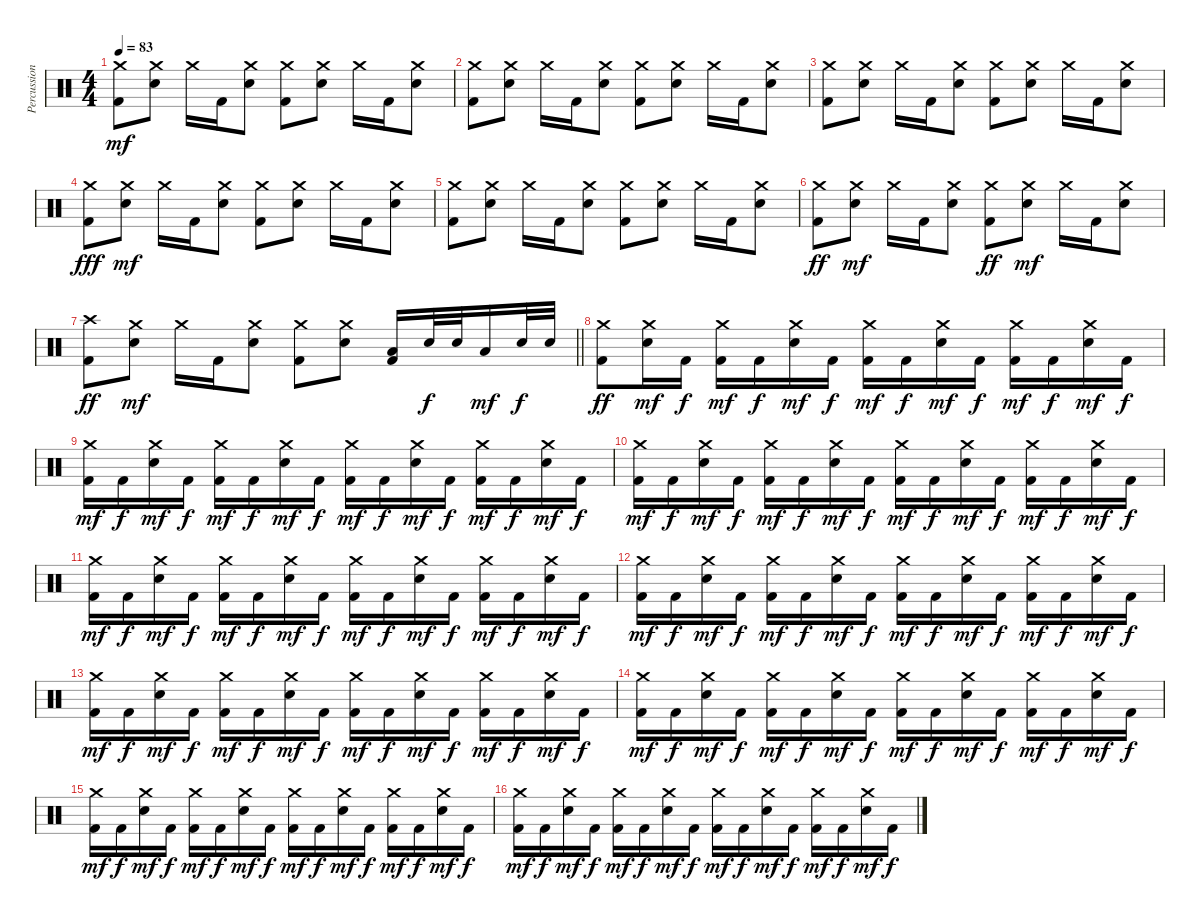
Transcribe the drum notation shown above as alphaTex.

\track ("Percussions" "Percussion") {instrument percussion}
\staff {score}
\articulation defaults
\ts (4 4)
\tempo 83
\clef neutral
\ks c
("Kick (hit) 2" "Crash medium (hit)").8{dy mf} ("Electric Snare (hit)" "Crash medium (hit)").8 "Crash medium (hit)".16 "Kick (hit) 2".16 ("Electric Snare (hit)" "Crash medium (hit)").8 ("Kick (hit) 2" "Crash medium (hit)").8 ("Electric Snare (hit)" "Crash medium (hit)").8 "Crash medium (hit)".16 "Kick (hit) 2".16 ("Electric Snare (hit)" "Crash medium (hit)").8 |
("Kick (hit) 2" "Crash medium (hit)").8 ("Electric Snare (hit)" "Crash medium (hit)").8 "Crash medium (hit)".16 "Kick (hit) 2".16 ("Electric Snare (hit)" "Crash medium (hit)").8 ("Kick (hit) 2" "Crash medium (hit)").8 ("Electric Snare (hit)" "Crash medium (hit)").8 "Crash medium (hit)".16 "Kick (hit) 2".16 ("Electric Snare (hit)" "Crash medium (hit)").8 |
("Kick (hit) 2" "Crash medium (hit)").8 ("Electric Snare (hit)" "Crash medium (hit)").8 "Crash medium (hit)".16 "Kick (hit) 2".16 ("Electric Snare (hit)" "Crash medium (hit)").8 ("Kick (hit) 2" "Crash medium (hit)").8 ("Electric Snare (hit)" "Crash medium (hit)").8 "Crash medium (hit)".16 "Kick (hit) 2".16 ("Electric Snare (hit)" "Crash medium (hit)").8 |
("Kick (hit) 2" "Crash medium (hit)").8{dy fff} ("Electric Snare (hit)" "Crash medium (hit)").8{dy mf} "Crash medium (hit)".16 "Kick (hit) 2".16 ("Electric Snare (hit)" "Crash medium (hit)").8 ("Kick (hit) 2" "Crash medium (hit)").8 ("Electric Snare (hit)" "Crash medium (hit)").8 "Crash medium (hit)".16 "Kick (hit) 2".16 ("Electric Snare (hit)" "Crash medium (hit)").8 |
("Kick (hit) 2" "Crash medium (hit)").8 ("Electric Snare (hit)" "Crash medium (hit)").8 "Crash medium (hit)".16 "Kick (hit) 2".16 ("Electric Snare (hit)" "Crash medium (hit)").8 ("Kick (hit) 2" "Crash medium (hit)").8 ("Electric Snare (hit)" "Crash medium (hit)").8 "Crash medium (hit)".16 "Kick (hit) 2".16 ("Electric Snare (hit)" "Crash medium (hit)").8 |
("Kick (hit) 2" "Crash medium (hit)").8{dy ff} ("Electric Snare (hit)" "Crash medium (hit)").8{dy mf} "Crash medium (hit)".16 "Kick (hit) 2".16 ("Electric Snare (hit)" "Crash medium (hit)").8 ("Kick (hit) 2" "Crash medium (hit)").8{dy ff} ("Electric Snare (hit)" "Crash medium (hit)").8{dy mf} "Crash medium (hit)".16 "Kick (hit) 2".16 ("Electric Snare (hit)" "Crash medium (hit)").8 |
\barLineRight lightlight
("Kick (hit) 2" "Crash high (hit)").8{dy ff} ("Electric Snare (hit)" "Crash medium (hit)").8{dy mf} "Crash medium (hit)".16 "Kick (hit) 2".16 ("Electric Snare (hit)" "Crash medium (hit)").8 ("Kick (hit) 2" "Crash medium (hit)").8 ("Electric Snare (hit)" "Crash medium (hit)").8 ("Low Tom (hit)" "Kick (hit) 2").16 "Electric Snare (hit)".32{dy f} "Electric Snare (hit)".32 "Low Tom (hit)".16{dy mf} "Electric Snare (hit)".32{dy f} "Electric Snare (hit)".32 |
\section ("" "")
("Kick (hit) 2" "Crash medium (hit)").8{dy ff} ("Electric Snare (hit)" "Crash medium (hit)").16{dy mf} "Kick (hit) 2".16{dy f} ("Kick (hit) 2" "Crash medium (hit)").16{dy mf} "Kick (hit) 2".16{dy f} ("Electric Snare (hit)" "Crash medium (hit)").16{dy mf} "Kick (hit) 2".16{dy f} ("Kick (hit) 2" "Crash medium (hit)").16{dy mf} "Kick (hit) 2".16{dy f} ("Electric Snare (hit)" "Crash medium (hit)").16{dy mf} "Kick (hit) 2".16{dy f} ("Kick (hit) 2" "Crash medium (hit)").16{dy mf} "Kick (hit) 2".16{dy f} ("Electric Snare (hit)" "Crash medium (hit)").16{dy mf} "Kick (hit) 2".16{dy f} |
("Kick (hit) 2" "Crash medium (hit)").16{dy mf} "Kick (hit) 2".16{dy f} ("Electric Snare (hit)" "Crash medium (hit)").16{dy mf} "Kick (hit) 2".16{dy f} ("Kick (hit) 2" "Crash medium (hit)").16{dy mf} "Kick (hit) 2".16{dy f} ("Electric Snare (hit)" "Crash medium (hit)").16{dy mf} "Kick (hit) 2".16{dy f} ("Kick (hit) 2" "Crash medium (hit)").16{dy mf} "Kick (hit) 2".16{dy f} ("Electric Snare (hit)" "Crash medium (hit)").16{dy mf} "Kick (hit) 2".16{dy f} ("Kick (hit) 2" "Crash medium (hit)").16{dy mf} "Kick (hit) 2".16{dy f} ("Electric Snare (hit)" "Crash medium (hit)").16{dy mf} "Kick (hit) 2".16{dy f} |
("Kick (hit) 2" "Crash medium (hit)").16{dy mf} "Kick (hit) 2".16{dy f} ("Electric Snare (hit)" "Crash medium (hit)").16{dy mf} "Kick (hit) 2".16{dy f} ("Kick (hit) 2" "Crash medium (hit)").16{dy mf} "Kick (hit) 2".16{dy f} ("Electric Snare (hit)" "Crash medium (hit)").16{dy mf} "Kick (hit) 2".16{dy f} ("Kick (hit) 2" "Crash medium (hit)").16{dy mf} "Kick (hit) 2".16{dy f} ("Electric Snare (hit)" "Crash medium (hit)").16{dy mf} "Kick (hit) 2".16{dy f} ("Kick (hit) 2" "Crash medium (hit)").16{dy mf} "Kick (hit) 2".16{dy f} ("Electric Snare (hit)" "Crash medium (hit)").16{dy mf} "Kick (hit) 2".16{dy f} |
("Kick (hit) 2" "Crash medium (hit)").16{dy mf} "Kick (hit) 2".16{dy f} ("Electric Snare (hit)" "Crash medium (hit)").16{dy mf} "Kick (hit) 2".16{dy f} ("Kick (hit) 2" "Crash medium (hit)").16{dy mf} "Kick (hit) 2".16{dy f} ("Electric Snare (hit)" "Crash medium (hit)").16{dy mf} "Kick (hit) 2".16{dy f} ("Kick (hit) 2" "Crash medium (hit)").16{dy mf} "Kick (hit) 2".16{dy f} ("Electric Snare (hit)" "Crash medium (hit)").16{dy mf} "Kick (hit) 2".16{dy f} ("Kick (hit) 2" "Crash medium (hit)").16{dy mf} "Kick (hit) 2".16{dy f} ("Electric Snare (hit)" "Crash medium (hit)").16{dy mf} "Kick (hit) 2".16{dy f} |
("Kick (hit) 2" "Crash medium (hit)").16{dy mf} "Kick (hit) 2".16{dy f} ("Electric Snare (hit)" "Crash medium (hit)").16{dy mf} "Kick (hit) 2".16{dy f} ("Kick (hit) 2" "Crash medium (hit)").16{dy mf} "Kick (hit) 2".16{dy f} ("Electric Snare (hit)" "Crash medium (hit)").16{dy mf} "Kick (hit) 2".16{dy f} ("Kick (hit) 2" "Crash medium (hit)").16{dy mf} "Kick (hit) 2".16{dy f} ("Electric Snare (hit)" "Crash medium (hit)").16{dy mf} "Kick (hit) 2".16{dy f} ("Kick (hit) 2" "Crash medium (hit)").16{dy mf} "Kick (hit) 2".16{dy f} ("Electric Snare (hit)" "Crash medium (hit)").16{dy mf} "Kick (hit) 2".16{dy f} |
("Kick (hit) 2" "Crash medium (hit)").16{dy mf} "Kick (hit) 2".16{dy f} ("Electric Snare (hit)" "Crash medium (hit)").16{dy mf} "Kick (hit) 2".16{dy f} ("Kick (hit) 2" "Crash medium (hit)").16{dy mf} "Kick (hit) 2".16{dy f} ("Electric Snare (hit)" "Crash medium (hit)").16{dy mf} "Kick (hit) 2".16{dy f} ("Kick (hit) 2" "Crash medium (hit)").16{dy mf} "Kick (hit) 2".16{dy f} ("Electric Snare (hit)" "Crash medium (hit)").16{dy mf} "Kick (hit) 2".16{dy f} ("Kick (hit) 2" "Crash medium (hit)").16{dy mf} "Kick (hit) 2".16{dy f} ("Electric Snare (hit)" "Crash medium (hit)").16{dy mf} "Kick (hit) 2".16{dy f} |
("Kick (hit) 2" "Crash medium (hit)").16{dy mf} "Kick (hit) 2".16{dy f} ("Electric Snare (hit)" "Crash medium (hit)").16{dy mf} "Kick (hit) 2".16{dy f} ("Kick (hit) 2" "Crash medium (hit)").16{dy mf} "Kick (hit) 2".16{dy f} ("Electric Snare (hit)" "Crash medium (hit)").16{dy mf} "Kick (hit) 2".16{dy f} ("Kick (hit) 2" "Crash medium (hit)").16{dy mf} "Kick (hit) 2".16{dy f} ("Electric Snare (hit)" "Crash medium (hit)").16{dy mf} "Kick (hit) 2".16{dy f} ("Kick (hit) 2" "Crash medium (hit)").16{dy mf} "Kick (hit) 2".16{dy f} ("Electric Snare (hit)" "Crash medium (hit)").16{dy mf} "Kick (hit) 2".16{dy f} |
("Kick (hit) 2" "Crash medium (hit)").16{dy mf} "Kick (hit) 2".16{dy f} ("Electric Snare (hit)" "Crash medium (hit)").16{dy mf} "Kick (hit) 2".16{dy f} ("Kick (hit) 2" "Crash medium (hit)").16{dy mf} "Kick (hit) 2".16{dy f} ("Electric Snare (hit)" "Crash medium (hit)").16{dy mf} "Kick (hit) 2".16{dy f} ("Kick (hit) 2" "Crash medium (hit)").16{dy mf} "Kick (hit) 2".16{dy f} ("Electric Snare (hit)" "Crash medium (hit)").16{dy mf} "Kick (hit) 2".16{dy f} ("Kick (hit) 2" "Crash medium (hit)").16{dy mf} "Kick (hit) 2".16{dy f} ("Electric Snare (hit)" "Crash medium (hit)").16{dy mf} "Kick (hit) 2".16{dy f} |
("Kick (hit) 2" "Crash medium (hit)").16{dy mf} "Kick (hit) 2".16{dy f} ("Electric Snare (hit)" "Crash medium (hit)").16{dy mf} "Kick (hit) 2".16{dy f} ("Kick (hit) 2" "Crash medium (hit)").16{dy mf} "Kick (hit) 2".16{dy f} ("Electric Snare (hit)" "Crash medium (hit)").16{dy mf} "Kick (hit) 2".16{dy f} ("Kick (hit) 2" "Crash medium (hit)").16{dy mf} "Kick (hit) 2".16{dy f} ("Electric Snare (hit)" "Crash medium (hit)").16{dy mf} "Kick (hit) 2".16{dy f} ("Kick (hit) 2" "Crash medium (hit)").16{dy mf} "Kick (hit) 2".16{dy f} ("Electric Snare (hit)" "Crash medium (hit)").16{dy mf} "Kick (hit) 2".16{dy f}
